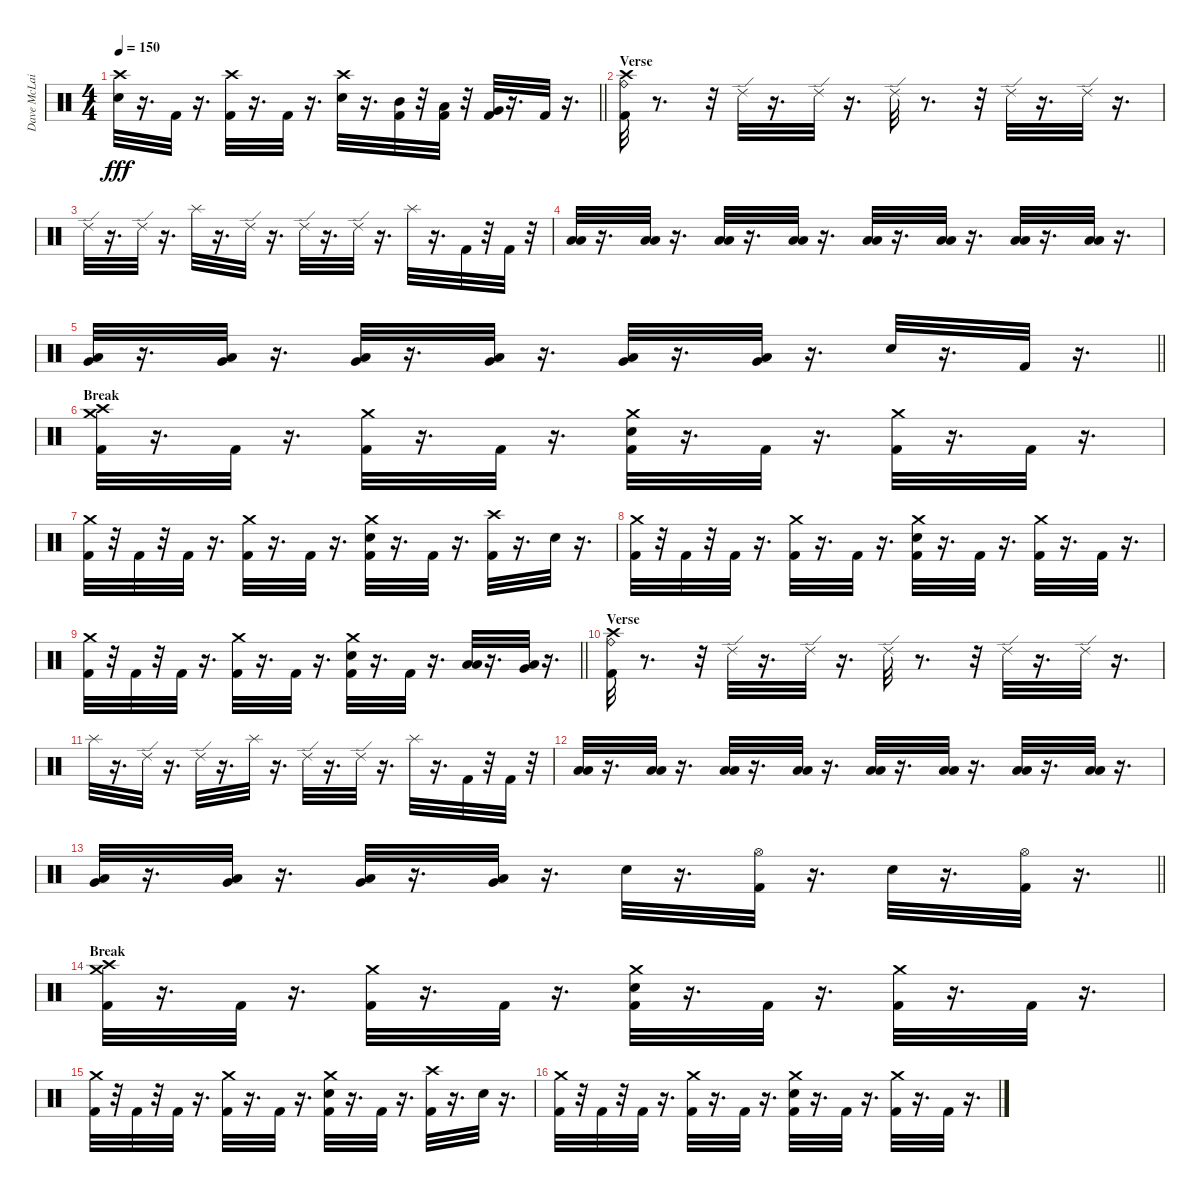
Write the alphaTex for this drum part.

\track ("Dave McLain" "Dave McLai") {instrument percussion}
\staff {score}
\articulation defaults
\ts (4 4)
\tempo 150
\clef neutral
\barLineRight lightlight
\ks c
("Snare (hit) 2" "Crash high (hit)").32{dy fff} r.16{d} "Kick (hit) 2".32 r.16{d} ("Kick (hit) 2" "Crash high (hit)").32 r.16{d} "Kick (hit) 2".32 r.16{d} ("Snare (hit) 2" "Crash high (hit)").32 r.16{d} ("Mid Tom (hit)" "Kick (hit) 2").32 r.32 ("Low Tom (hit)" "Kick (hit) 2").32 r.32 ("Very Low Tom (hit)" "Kick (hit) 2").32 r.16{d} "Kick (hit) 2".32 r.16{d} |
\section ("" "Verse")
("Ride (bell)" "Crash high (hit)" "Kick (hit) 2").32 r.8{d} r.32 "Ride (edge) 2".32 r.16{d} "Ride (edge) 2".32 r.16{d} "Ride (edge) 2".32 r.8{d} r.32 "Ride (edge) 2".32 r.16{d} "Ride (edge) 2".32 r.16{d} |
"Ride (edge) 2".32 r.16{d} "Ride (edge) 2".32 r.16{d} "Splash (hit)".32 r.16{d} "Ride (edge) 2".32 r.16{d} "Ride (edge) 2".32 r.16{d} "Ride (edge) 2".32 r.16{d} "Splash (hit)".32 r.16{d} "Kick (hit) 2".32 r.32 "Kick (hit) 2".32 r.32 |
("Low Tom (hit)" "Low Floor Tom (hit)").32 r.16{d} ("Low Tom (hit)" "Low Floor Tom (hit)").32 r.16{d} ("Low Tom (hit)" "Low Floor Tom (hit)").32 r.16{d} ("Low Tom (hit)" "Low Floor Tom (hit)").32 r.16{d} ("Low Tom (hit)" "Low Floor Tom (hit)").32 r.16{d} ("Low Tom (hit)" "Low Floor Tom (hit)").32 r.16{d} ("Low Tom (hit)" "Low Floor Tom (hit)").32 r.16{d} ("Low Tom (hit)" "Low Floor Tom (hit)").32 r.16{d} |
\barLineRight lightlight
("Very Low Tom (hit)" "Low Floor Tom (hit)").32 r.16{d} ("Very Low Tom (hit)" "Low Floor Tom (hit)").32 r.16{d} ("Very Low Tom (hit)" "Low Floor Tom (hit)").32 r.16{d} ("Very Low Tom (hit)" "Low Floor Tom (hit)").32 r.16{d} ("Very Low Tom (hit)" "Low Floor Tom (hit)").32 r.16{d} ("Very Low Tom (hit)" "Low Floor Tom (hit)").32 r.16{d} "Snare (hit) 2".32 r.16{d} "Kick (hit) 2".32 r.16{d} |
\section ("" "Break")
("Crash medium (hit)" "Crash high (hit)" "Kick (hit) 2").32 r.16{d} "Kick (hit) 2".32 r.16{d} ("Crash medium (hit)" "Kick (hit) 2").32 r.16{d} "Kick (hit) 2".32 r.16{d} ("Snare (hit) 2" "Crash medium (hit)" "Kick (hit) 2").32 r.16{d} "Kick (hit) 2".32 r.16{d} ("Crash medium (hit)" "Kick (hit) 2").32 r.16{d} "Kick (hit) 2".32 r.16{d} |
("Crash medium (hit)" "Kick (hit) 2").32 r.32 "Kick (hit) 2".32 r.32 "Kick (hit) 2".32 r.16{d} ("Crash medium (hit)" "Kick (hit) 2").32 r.16{d} "Kick (hit) 2".32 r.16{d} ("Snare (hit) 2" "Crash medium (hit)" "Kick (hit) 2").32 r.16{d} "Kick (hit) 2".32 r.16{d} ("Crash high (hit)" "Kick (hit) 2").32 r.16{d} "Snare (hit) 2".32 r.16{d} |
("Crash medium (hit)" "Kick (hit) 2").32 r.32 "Kick (hit) 2".32 r.32 "Kick (hit) 2".32 r.16{d} ("Kick (hit) 2" "Crash medium (hit)").32 r.16{d} "Kick (hit) 2".32 r.16{d} ("Snare (hit) 2" "Kick (hit) 2" "Crash medium (hit)").32 r.16{d} "Kick (hit) 2".32 r.16{d} ("Crash medium (hit)" "Kick (hit) 2").32 r.16{d} "Kick (hit) 2".32 r.16{d} |
\barLineRight lightlight
("Crash medium (hit)" "Kick (hit) 2").32 r.32 "Kick (hit) 2".32 r.32 "Kick (hit) 2".32 r.16{d} ("Crash medium (hit)" "Kick (hit) 2").32 r.16{d} "Kick (hit) 2".32 r.16{d} ("Snare (hit) 2" "Crash medium (hit)" "Kick (hit) 2").32 r.16{d} "Kick (hit) 2".32 r.16{d} ("Low Tom (hit)" "Low Floor Tom (hit)").32 r.16{d} ("Low Floor Tom (hit)" "Very Low Tom (hit)").32 r.16{d} |
\section ("" "Verse")
("Ride (bell)" "Crash high (hit)" "Kick (hit) 2").32 r.8{d} r.32 "Ride (edge) 2".32 r.16{d} "Ride (edge) 2".32 r.16{d} "Ride (edge) 2".32 r.8{d} r.32 "Ride (edge) 2".32 r.16{d} "Ride (edge) 2".32 r.16{d} |
"Splash (hit)".32 r.16{d} "Ride (edge) 2".32 r.16{d} "Ride (edge) 2".32 r.16{d} "Splash (hit)".32 r.16{d} "Ride (edge) 2".32 r.16{d} "Ride (edge) 2".32 r.16{d} "Splash (hit)".32 r.16{d} "Kick (hit) 2".32 r.32 "Kick (hit) 2".32 r.32 |
("Low Tom (hit)" "Low Floor Tom (hit)").32 r.16{d} ("Low Tom (hit)" "Low Floor Tom (hit)").32 r.16{d} ("Low Tom (hit)" "Low Floor Tom (hit)").32 r.16{d} ("Low Tom (hit)" "Low Floor Tom (hit)").32 r.16{d} ("Low Tom (hit)" "Low Floor Tom (hit)").32 r.16{d} ("Low Tom (hit)" "Low Floor Tom (hit)").32 r.16{d} ("Low Tom (hit)" "Low Floor Tom (hit)").32 r.16{d} ("Low Tom (hit)" "Low Floor Tom (hit)").32 r.16{d} |
\barLineRight lightlight
("Very Low Tom (hit)" "Low Floor Tom (hit)").32 r.16{d} ("Very Low Tom (hit)" "Low Floor Tom (hit)").32 r.16{d} ("Very Low Tom (hit)" "Low Floor Tom (hit)").32 r.16{d} ("Very Low Tom (hit)" "Low Floor Tom (hit)").32 r.16{d} "Snare (hit) 2".32 r.16{d} ("Hi-Hat (open)" "Kick (hit) 2").32 r.16{d} "Snare (hit) 2".32 r.16{d} ("Hi-Hat (open)" "Kick (hit) 2").32 r.16{d} |
\section ("" "Break")
("Crash medium (hit)" "Crash high (hit)" "Kick (hit) 2").32 r.16{d} "Kick (hit) 2".32 r.16{d} ("Crash medium (hit)" "Kick (hit) 2").32 r.16{d} "Kick (hit) 2".32 r.16{d} ("Snare (hit) 2" "Crash medium (hit)" "Kick (hit) 2").32 r.16{d} "Kick (hit) 2".32 r.16{d} ("Crash medium (hit)" "Kick (hit) 2").32 r.16{d} "Kick (hit) 2".32 r.16{d} |
("Crash medium (hit)" "Kick (hit) 2").32 r.32 "Kick (hit) 2".32 r.32 "Kick (hit) 2".32 r.16{d} ("Crash medium (hit)" "Kick (hit) 2").32 r.16{d} "Kick (hit) 2".32 r.16{d} ("Snare (hit) 2" "Crash medium (hit)" "Kick (hit) 2").32 r.16{d} "Kick (hit) 2".32 r.16{d} ("Crash high (hit)" "Kick (hit) 2").32 r.16{d} "Snare (hit) 2".32 r.16{d} |
("Crash medium (hit)" "Kick (hit) 2").32 r.32 "Kick (hit) 2".32 r.32 "Kick (hit) 2".32 r.16{d} ("Kick (hit) 2" "Crash medium (hit)").32 r.16{d} "Kick (hit) 2".32 r.16{d} ("Snare (hit) 2" "Kick (hit) 2" "Crash medium (hit)").32 r.16{d} "Kick (hit) 2".32 r.16{d} ("Crash medium (hit)" "Kick (hit) 2").32 r.16{d} "Kick (hit) 2".32 r.16{d}
